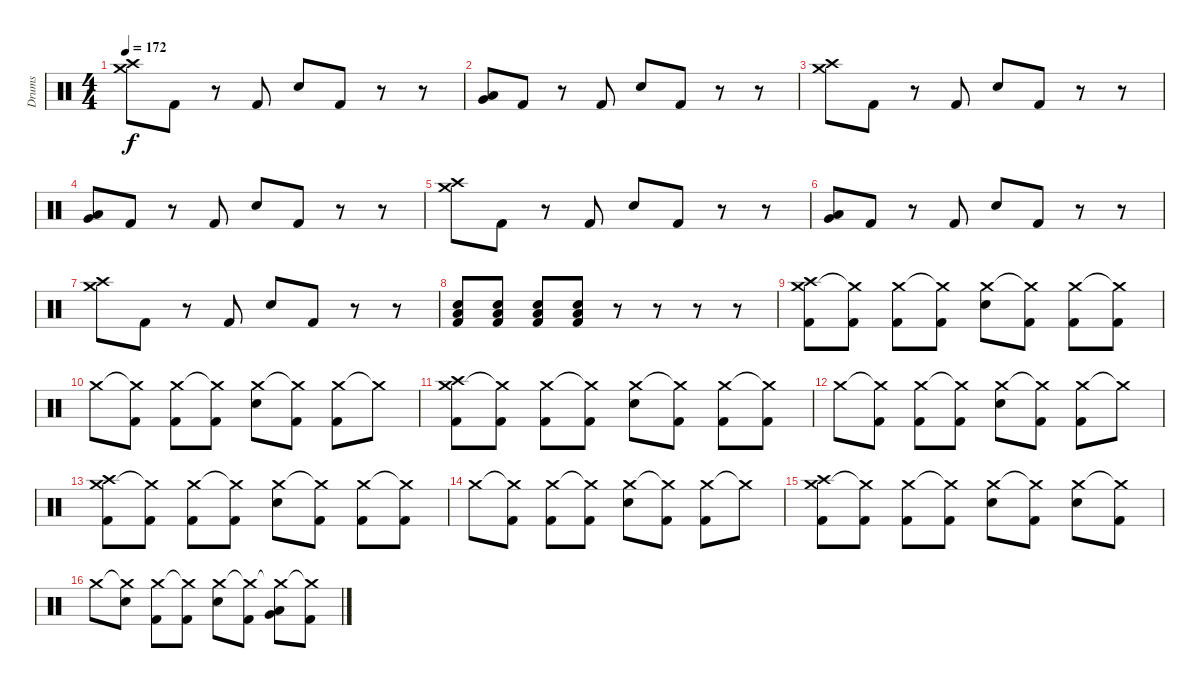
\track ("Drums" "Drums") {instrument percussion}
\staff {score}
\articulation defaults
\ts (4 4)
\tempo 172
\clef neutral
\ks c
("Crash medium (hit)" "Crash high (hit)").8{dy f} "Kick (hit) 2".8 r.8 "Kick (hit) 2".8 "Electric Snare (hit)".8 "Kick (hit) 2".8 r.8 r.8 |
("Very Low Tom (hit)" "Low Floor Tom (hit)").8 "Kick (hit) 2".8 r.8 "Kick (hit) 2".8 "Electric Snare (hit)".8 "Kick (hit) 2".8 r.8 r.8 |
("Crash medium (hit)" "Crash high (hit)").8 "Kick (hit) 2".8 r.8 "Kick (hit) 2".8 "Electric Snare (hit)".8 "Kick (hit) 2".8 r.8 r.8 |
("Very Low Tom (hit)" "Low Floor Tom (hit)").8 "Kick (hit) 2".8 r.8 "Kick (hit) 2".8 "Electric Snare (hit)".8 "Kick (hit) 2".8 r.8 r.8 |
("Crash medium (hit)" "Crash high (hit)").8 "Kick (hit) 2".8 r.8 "Kick (hit) 2".8 "Electric Snare (hit)".8 "Kick (hit) 2".8 r.8 r.8 |
("Very Low Tom (hit)" "Low Floor Tom (hit)").8 "Kick (hit) 2".8 r.8 "Kick (hit) 2".8 "Electric Snare (hit)".8 "Kick (hit) 2".8 r.8 r.8 |
("Crash medium (hit)" "Crash high (hit)").8 "Kick (hit) 2".8 r.8 "Kick (hit) 2".8 "Electric Snare (hit)".8 "Kick (hit) 2".8 r.8 r.8 |
("Low Floor Tom (hit)" "Electric Snare (hit)" "Kick (hit) 2").8 ("Low Floor Tom (hit)" "Electric Snare (hit)" "Kick (hit) 2").8 ("Low Floor Tom (hit)" "Electric Snare (hit)" "Kick (hit) 2").8 ("Low Floor Tom (hit)" "Electric Snare (hit)" "Kick (hit) 2").8 r.8 r.8 r.8 r.8 |
("Crash medium (hit)" "Crash high (hit)" "Kick (hit) 2").8 ("Crash medium (hit)"{t} "Kick (hit) 2").8 ("Crash medium (hit)" "Kick (hit) 2").8 ("Crash medium (hit)"{t} "Kick (hit) 2").8 ("Crash medium (hit)" "Electric Snare (hit)").8 ("Crash medium (hit)"{t} "Kick (hit) 2").8 ("Crash medium (hit)" "Kick (hit) 2").8 ("Crash medium (hit)"{t} "Kick (hit) 2").8 |
"Crash medium (hit)".8 ("Crash medium (hit)"{t} "Kick (hit) 2").8 ("Crash medium (hit)" "Kick (hit) 2").8 ("Crash medium (hit)"{t} "Kick (hit) 2").8 ("Crash medium (hit)" "Electric Snare (hit)").8 ("Crash medium (hit)"{t} "Kick (hit) 2").8 ("Crash medium (hit)" "Kick (hit) 2").8 "Crash medium (hit)"{t}.8 |
("Crash medium (hit)" "Crash high (hit)" "Kick (hit) 2").8 ("Crash medium (hit)"{t} "Kick (hit) 2").8 ("Crash medium (hit)" "Kick (hit) 2").8 ("Crash medium (hit)"{t} "Kick (hit) 2").8 ("Crash medium (hit)" "Electric Snare (hit)").8 ("Crash medium (hit)"{t} "Kick (hit) 2").8 ("Crash medium (hit)" "Kick (hit) 2").8 ("Crash medium (hit)"{t} "Kick (hit) 2").8 |
"Crash medium (hit)".8 ("Crash medium (hit)"{t} "Kick (hit) 2").8 ("Crash medium (hit)" "Kick (hit) 2").8 ("Crash medium (hit)"{t} "Kick (hit) 2").8 ("Crash medium (hit)" "Electric Snare (hit)").8 ("Crash medium (hit)"{t} "Kick (hit) 2").8 ("Crash medium (hit)" "Kick (hit) 2").8 "Crash medium (hit)"{t}.8 |
("Crash medium (hit)" "Crash high (hit)" "Kick (hit) 2").8 ("Crash medium (hit)"{t} "Kick (hit) 2").8 ("Crash medium (hit)" "Kick (hit) 2").8 ("Crash medium (hit)"{t} "Kick (hit) 2").8 ("Crash medium (hit)" "Electric Snare (hit)").8 ("Crash medium (hit)"{t} "Kick (hit) 2").8 ("Crash medium (hit)" "Kick (hit) 2").8 ("Crash medium (hit)"{t} "Kick (hit) 2").8 |
"Crash medium (hit)".8 ("Crash medium (hit)"{t} "Kick (hit) 2").8 ("Crash medium (hit)" "Kick (hit) 2").8 ("Crash medium (hit)"{t} "Kick (hit) 2").8 ("Crash medium (hit)" "Electric Snare (hit)").8 ("Crash medium (hit)"{t} "Kick (hit) 2").8 ("Crash medium (hit)" "Kick (hit) 2").8 "Crash medium (hit)"{t}.8 |
("Crash medium (hit)" "Crash high (hit)" "Kick (hit) 2").8 ("Crash medium (hit)"{t} "Kick (hit) 2").8 ("Crash medium (hit)" "Kick (hit) 2").8 ("Crash medium (hit)"{t} "Kick (hit) 2").8 ("Crash medium (hit)" "Electric Snare (hit)").8 ("Crash medium (hit)"{t} "Kick (hit) 2").8 ("Crash medium (hit)" "Electric Snare (hit)").8 ("Crash medium (hit)"{t} "Kick (hit) 2").8 |
"Crash medium (hit)".8 ("Crash medium (hit)"{t} "Electric Snare (hit)").8 ("Crash medium (hit)" "Kick (hit) 2").8 ("Crash medium (hit)"{t} "Kick (hit) 2").8 ("Crash medium (hit)" "Electric Snare (hit)").8 ("Crash medium (hit)"{t} "Kick (hit) 2").8 ("Crash medium (hit)"{t} "Low Floor Tom (hit)" "Very Low Tom (hit)").8 ("Crash medium (hit)"{t} "Kick (hit) 2").8
